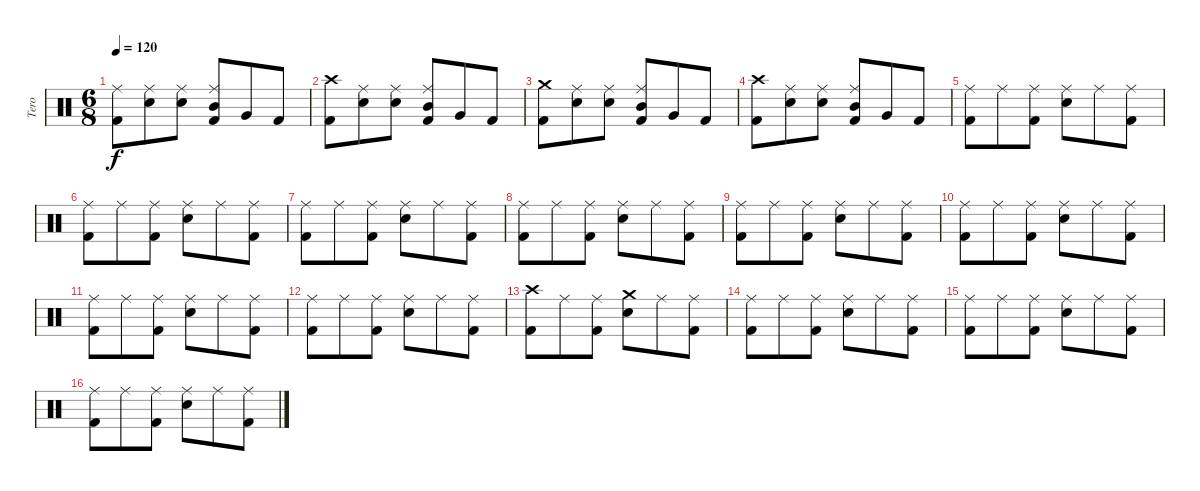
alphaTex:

\track ("Tero" "Tero") {instrument percussion}
\staff {score}
\articulation defaults
\ts (6 8)
\tempo 120
\clef neutral
\ks c
("Kick (hit) 2" "Ride (middle)").8{dy f} ("Snare (hit) 2" "Ride (middle)").8 ("Snare (hit) 2" "Ride (middle)").8 ("Ride (middle)" "Mid Tom (hit)" "Kick (hit) 2").8 "Very Low Tom (hit)".8 "Kick (hit) 2".8 |
("Crash high (hit)" "Kick (hit) 2").8 ("Snare (hit) 2" "Ride (middle)").8 ("Snare (hit) 2" "Ride (middle)").8 ("Ride (middle)" "Mid Tom (hit)" "Kick (hit) 2").8 "Very Low Tom (hit)".8 "Kick (hit) 2".8 |
("Crash medium (hit)" "Kick (hit) 2").8 ("Snare (hit) 2" "Ride (middle)").8 ("Snare (hit) 2" "Ride (middle)").8 ("Ride (middle)" "Mid Tom (hit)" "Kick (hit) 2").8 "Very Low Tom (hit)".8 "Kick (hit) 2".8 |
("Crash high (hit)" "Kick (hit) 2").8 ("Snare (hit) 2" "Ride (middle)").8 ("Snare (hit) 2" "Ride (middle)").8 ("Ride (middle)" "Mid Tom (hit)" "Kick (hit) 2").8 "Very Low Tom (hit)".8 "Kick (hit) 2".8 |
("Kick (hit) 2" "Ride (middle)").8 "Ride (middle)".8 ("Kick (hit) 2" "Ride (middle)").8 ("Snare (hit) 2" "Ride (middle)").8 "Ride (middle)".8 ("Kick (hit) 2" "Ride (middle)").8 |
("Kick (hit) 2" "Ride (middle)").8 "Ride (middle)".8 ("Kick (hit) 2" "Ride (middle)").8 ("Snare (hit) 2" "Ride (middle)").8 "Ride (middle)".8 ("Kick (hit) 2" "Ride (middle)").8 |
("Kick (hit) 2" "Ride (middle)").8 "Ride (middle)".8 ("Kick (hit) 2" "Ride (middle)").8 ("Snare (hit) 2" "Ride (middle)").8 "Ride (middle)".8 ("Kick (hit) 2" "Ride (middle)").8 |
("Kick (hit) 2" "Ride (middle)").8 "Ride (middle)".8 ("Kick (hit) 2" "Ride (middle)").8 ("Snare (hit) 2" "Ride (middle)").8 "Ride (middle)".8 ("Kick (hit) 2" "Ride (middle)").8 |
("Ride (middle)" "Kick (hit) 2").8 "Ride (middle)".8 ("Kick (hit) 2" "Ride (middle)").8 ("Snare (hit) 2" "Ride (middle)").8 "Ride (middle)".8 ("Kick (hit) 2" "Ride (middle)").8 |
("Kick (hit) 2" "Ride (middle)").8 "Ride (middle)".8 ("Kick (hit) 2" "Ride (middle)").8 ("Snare (hit) 2" "Ride (middle)").8 "Ride (middle)".8 ("Kick (hit) 2" "Ride (middle)").8 |
("Kick (hit) 2" "Ride (middle)").8 "Ride (middle)".8 ("Kick (hit) 2" "Ride (middle)").8 ("Snare (hit) 2" "Ride (middle)").8 "Ride (middle)".8 ("Kick (hit) 2" "Ride (middle)").8 |
("Kick (hit) 2" "Ride (middle)").8 "Ride (middle)".8 ("Kick (hit) 2" "Ride (middle)").8 ("Snare (hit) 2" "Ride (middle)").8 "Ride (middle)".8 ("Kick (hit) 2" "Ride (middle)").8 |
("Crash high (hit)" "Kick (hit) 2").8 "Ride (middle)".8 ("Kick (hit) 2" "Ride (middle)").8 ("Crash medium (hit)" "Snare (hit) 2").8 "Ride (middle)".8 ("Kick (hit) 2" "Ride (middle)").8 |
("Kick (hit) 2" "Ride (middle)").8 "Ride (middle)".8 ("Kick (hit) 2" "Ride (middle)").8 ("Snare (hit) 2" "Ride (middle)").8 "Ride (middle)".8 ("Kick (hit) 2" "Ride (middle)").8 |
("Kick (hit) 2" "Ride (middle)").8 "Ride (middle)".8 ("Kick (hit) 2" "Ride (middle)").8 ("Snare (hit) 2" "Ride (middle)").8 "Ride (middle)".8 ("Kick (hit) 2" "Ride (middle)").8 |
("Kick (hit) 2" "Ride (middle)").8 "Ride (middle)".8 ("Kick (hit) 2" "Ride (middle)").8 ("Snare (hit) 2" "Ride (middle)").8 "Ride (middle)".8 ("Kick (hit) 2" "Ride (middle)").8
